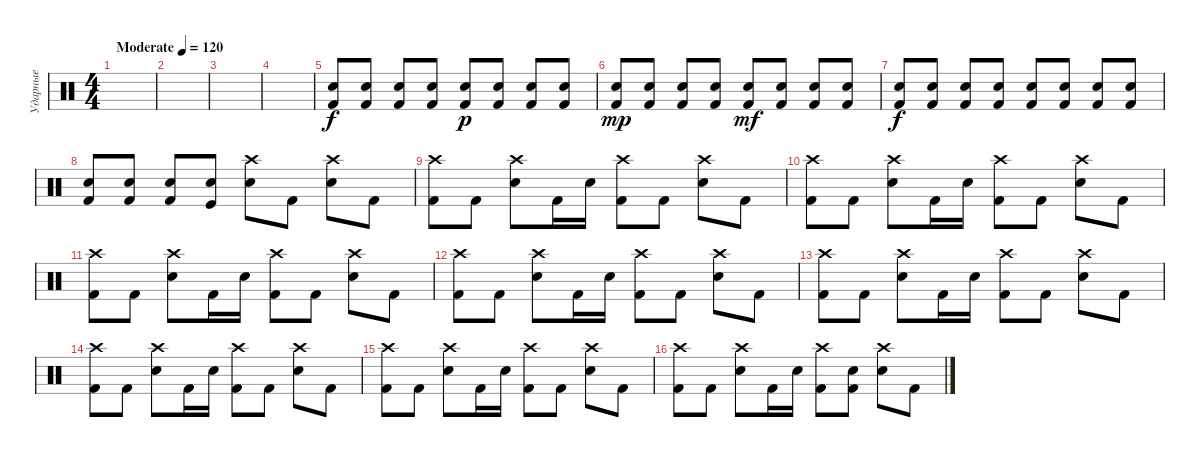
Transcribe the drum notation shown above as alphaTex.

\track ("Ударные" "Ударные") {instrument percussion}
\staff {score}
\articulation defaults
\ts (4 4)
\tempo (120 "Moderate")
\clef neutral
\ks c
|
|
|
|
("Electric Snare (hit)" "Kick (hit) 2").8 ("Electric Snare (hit)" "Kick (hit) 2").8 ("Electric Snare (hit)" "Kick (hit) 2").8 ("Electric Snare (hit)" "Kick (hit) 2").8 ("Electric Snare (hit)" "Kick (hit) 2").8{dy p} ("Electric Snare (hit)" "Kick (hit) 2").8 ("Electric Snare (hit)" "Kick (hit) 2").8 ("Electric Snare (hit)" "Kick (hit) 2").8 |
("Electric Snare (hit)" "Kick (hit) 2").8{dy mp} ("Electric Snare (hit)" "Kick (hit) 2").8 ("Electric Snare (hit)" "Kick (hit) 2").8 ("Electric Snare (hit)" "Kick (hit) 2").8 ("Electric Snare (hit)" "Kick (hit) 2").8{dy mf} ("Electric Snare (hit)" "Kick (hit) 2").8 ("Electric Snare (hit)" "Kick (hit) 2").8 ("Electric Snare (hit)" "Kick (hit) 2").8 |
("Electric Snare (hit)" "Kick (hit) 2").8{dy f} ("Electric Snare (hit)" "Kick (hit) 2").8 ("Electric Snare (hit)" "Kick (hit) 2").8 ("Electric Snare (hit)" "Kick (hit) 2").8 ("Electric Snare (hit)" "Kick (hit) 2").8 ("Electric Snare (hit)" "Kick (hit) 2").8 ("Electric Snare (hit)" "Kick (hit) 2").8 ("Electric Snare (hit)" "Kick (hit) 2").8 |
("Electric Snare (hit)" "Kick (hit) 2").8 ("Electric Snare (hit)" "Kick (hit) 2").8 ("Electric Snare (hit)" "Kick (hit) 2").8 ("Electric Snare (hit)" "Kick (hit)").8 ("Crash high (hit)" "Electric Snare (hit)").8 "Kick (hit) 2".8 ("Crash high (hit)" "Electric Snare (hit)").8 "Kick (hit) 2".8 |
("Crash high (hit)" "Kick (hit) 2").8 "Kick (hit) 2".8 ("Crash high (hit)" "Electric Snare (hit)").8 "Kick (hit) 2".16 "Electric Snare (hit)".16 ("Crash high (hit)" "Kick (hit) 2").8 "Kick (hit) 2".8 ("Crash high (hit)" "Electric Snare (hit)").8 "Kick (hit) 2".8 |
("Crash high (hit)" "Kick (hit) 2").8 "Kick (hit) 2".8 ("Crash high (hit)" "Electric Snare (hit)").8 "Kick (hit) 2".16 "Electric Snare (hit)".16 ("Crash high (hit)" "Kick (hit) 2").8 "Kick (hit) 2".8 ("Crash high (hit)" "Electric Snare (hit)").8 "Kick (hit) 2".8 |
("Crash high (hit)" "Kick (hit) 2").8 "Kick (hit) 2".8 ("Crash high (hit)" "Electric Snare (hit)").8 "Kick (hit) 2".16 "Electric Snare (hit)".16 ("Crash high (hit)" "Kick (hit) 2").8 "Kick (hit) 2".8 ("Crash high (hit)" "Electric Snare (hit)").8 "Kick (hit) 2".8 |
("Crash high (hit)" "Kick (hit) 2").8 "Kick (hit) 2".8 ("Crash high (hit)" "Electric Snare (hit)").8 "Kick (hit) 2".16 "Electric Snare (hit)".16 ("Crash high (hit)" "Kick (hit) 2").8 "Kick (hit) 2".8 ("Crash high (hit)" "Electric Snare (hit)").8 "Kick (hit) 2".8 |
("Crash high (hit)" "Kick (hit) 2").8 "Kick (hit) 2".8 ("Crash high (hit)" "Electric Snare (hit)").8 "Kick (hit) 2".16 "Electric Snare (hit)".16 ("Crash high (hit)" "Kick (hit) 2").8 "Kick (hit) 2".8 ("Crash high (hit)" "Electric Snare (hit)").8 "Kick (hit) 2".8 |
("Crash high (hit)" "Kick (hit) 2").8 "Kick (hit) 2".8 ("Crash high (hit)" "Electric Snare (hit)").8 "Kick (hit) 2".16 "Electric Snare (hit)".16 ("Crash high (hit)" "Kick (hit) 2").8 "Kick (hit) 2".8 ("Crash high (hit)" "Electric Snare (hit)").8 "Kick (hit) 2".8 |
("Crash high (hit)" "Kick (hit) 2").8 "Kick (hit) 2".8 ("Crash high (hit)" "Electric Snare (hit)").8 "Kick (hit) 2".16 "Electric Snare (hit)".16 ("Crash high (hit)" "Kick (hit) 2").8 "Kick (hit) 2".8 ("Crash high (hit)" "Electric Snare (hit)").8 "Kick (hit) 2".8 |
("Crash high (hit)" "Kick (hit) 2").8 "Kick (hit) 2".8 ("Crash high (hit)" "Electric Snare (hit)").8 "Kick (hit) 2".16 "Electric Snare (hit)".16 ("Crash high (hit)" "Kick (hit) 2").8 ("Electric Snare (hit)" "Kick (hit) 2").8 ("Crash high (hit)" "Electric Snare (hit)").8 "Kick (hit) 2".8
